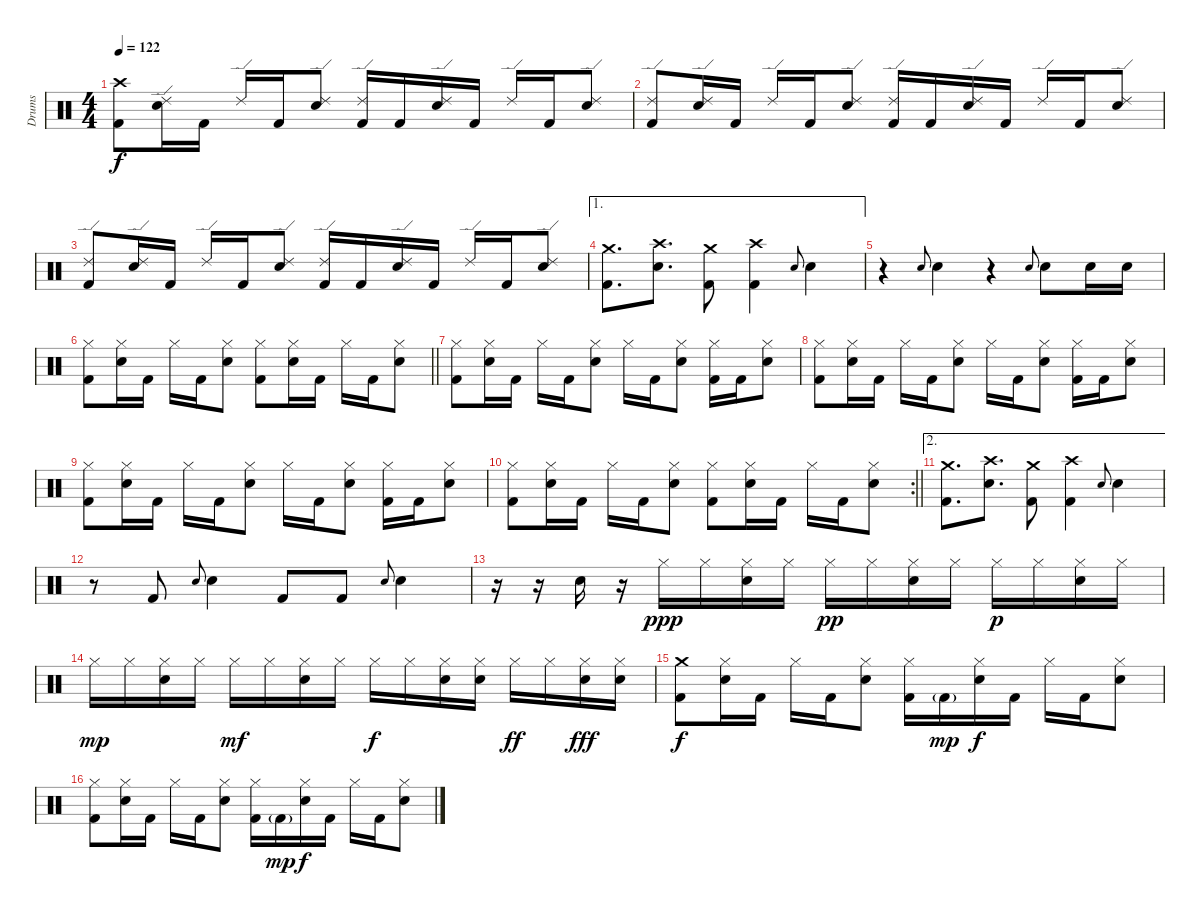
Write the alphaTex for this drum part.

\track ("Drums" "Drums") {instrument percussion}
\staff {score}
\articulation defaults
\ts (4 4)
\tempo 122
\clef neutral
\ks c
("Crash high (hit)" "Kick (hit) 2").8{dy f} ("Ride (edge) 2" "Snare (hit) 2").16 "Kick (hit) 2".16 "Ride (edge) 2".16 "Kick (hit) 2".16 ("Ride (edge) 2" "Snare (hit) 2").8 ("Ride (edge) 2" "Kick (hit) 2").16 "Kick (hit) 2".16 ("Ride (edge) 2" "Snare (hit) 2").16 "Kick (hit) 2".16 "Ride (edge) 2".16 "Kick (hit) 2".16 ("Ride (edge) 2" "Snare (hit) 2").8 |
("Ride (edge) 2" "Kick (hit) 2").8 ("Ride (edge) 2" "Snare (hit) 2").16 "Kick (hit) 2".16 "Ride (edge) 2".16 "Kick (hit) 2".16 ("Ride (edge) 2" "Snare (hit) 2").8 ("Ride (edge) 2" "Kick (hit) 2").16 "Kick (hit) 2".16 ("Ride (edge) 2" "Snare (hit) 2").16 "Kick (hit) 2".16 "Ride (edge) 2".16 "Kick (hit) 2".16 ("Ride (edge) 2" "Snare (hit) 2").8 |
("Ride (edge) 2" "Kick (hit) 2").8 ("Ride (edge) 2" "Snare (hit) 2").16 "Kick (hit) 2".16 "Ride (edge) 2".16 "Kick (hit) 2".16 ("Ride (edge) 2" "Snare (hit) 2").8 ("Ride (edge) 2" "Kick (hit) 2").16 "Kick (hit) 2".16 ("Ride (edge) 2" "Snare (hit) 2").16 "Kick (hit) 2".16 "Ride (edge) 2".16 "Kick (hit) 2".16 ("Ride (edge) 2" "Snare (hit) 2").8 |
\ae 1
("Crash medium (hit)" "Kick (hit) 2").8{d} ("Crash high (hit)" "Snare (hit) 2").8{d} ("Crash medium (hit)" "Kick (hit) 2").8 ("Crash high (hit)" "Kick (hit) 2").4 "Snare (hit) 2".8{gr onbeat} "Snare (hit) 2".4 |
r.4 "Snare (hit) 2".8{gr onbeat} "Snare (hit) 2".4 r.4 "Snare (hit) 2".8{gr onbeat} "Snare (hit) 2".8 "Snare (hit) 2".16 "Snare (hit) 2".16 |
\barLineRight lightlight
("Hi-Hat (closed)" "Kick (hit) 2").8 ("Hi-Hat (closed)" "Snare (hit) 2").16 "Kick (hit) 2".16 "Hi-Hat (closed)".16 "Kick (hit) 2".16 ("Hi-Hat (closed)" "Snare (hit) 2").8 ("Hi-Hat (closed)" "Kick (hit) 2").8 ("Hi-Hat (closed)" "Snare (hit) 2").16 "Kick (hit) 2".16 "Hi-Hat (closed)".16 "Kick (hit) 2".16 ("Hi-Hat (closed)" "Snare (hit) 2").8 |
\section ("" "")
("Hi-Hat (closed)" "Kick (hit) 2").8 ("Hi-Hat (closed)" "Snare (hit) 2").16 "Kick (hit) 2".16 "Hi-Hat (closed)".16 "Kick (hit) 2".16 ("Hi-Hat (closed)" "Snare (hit) 2").8 "Hi-Hat (closed)".16 "Kick (hit) 2".16 ("Hi-Hat (closed)" "Snare (hit) 2").8 ("Hi-Hat (closed)" "Kick (hit) 2").16 "Kick (hit) 2".16 ("Hi-Hat (closed)" "Snare (hit) 2").8 |
("Hi-Hat (closed)" "Kick (hit) 2").8 ("Hi-Hat (closed)" "Snare (hit) 2").16 "Kick (hit) 2".16 "Hi-Hat (closed)".16 "Kick (hit) 2".16 ("Hi-Hat (closed)" "Snare (hit) 2").8 "Hi-Hat (closed)".16 "Kick (hit) 2".16 ("Hi-Hat (closed)" "Snare (hit) 2").8 ("Hi-Hat (closed)" "Kick (hit) 2").16 "Kick (hit) 2".16 ("Hi-Hat (closed)" "Snare (hit) 2").8 |
("Hi-Hat (closed)" "Kick (hit) 2").8 ("Hi-Hat (closed)" "Snare (hit) 2").16 "Kick (hit) 2".16 "Hi-Hat (closed)".16 "Kick (hit) 2".16 ("Hi-Hat (closed)" "Snare (hit) 2").8 "Hi-Hat (closed)".16 "Kick (hit) 2".16 ("Hi-Hat (closed)" "Snare (hit) 2").8 ("Hi-Hat (closed)" "Kick (hit) 2").16 "Kick (hit) 2".16 ("Hi-Hat (closed)" "Snare (hit) 2").8 |
\rc 2
\barLineRight lightlight
("Hi-Hat (closed)" "Kick (hit) 2").8 ("Hi-Hat (closed)" "Snare (hit) 2").16 "Kick (hit) 2".16 "Hi-Hat (closed)".16 "Kick (hit) 2".16 ("Hi-Hat (closed)" "Snare (hit) 2").8 ("Hi-Hat (closed)" "Kick (hit) 2").8 ("Hi-Hat (closed)" "Snare (hit) 2").16 "Kick (hit) 2".16 "Hi-Hat (closed)".16 "Kick (hit) 2".16 ("Hi-Hat (closed)" "Snare (hit) 2").8 |
\ae 2
("Crash medium (hit)" "Kick (hit) 2").8{d} ("Crash high (hit)" "Snare (hit) 2").8{d} ("Crash medium (hit)" "Kick (hit) 2").8 ("Crash high (hit)" "Kick (hit) 2").4 "Snare (hit) 2".8{gr onbeat} "Snare (hit) 2".4 |
r.8 "Kick (hit) 2".8 "Snare (hit) 2".8{gr onbeat} "Snare (hit) 2".4 "Kick (hit) 2".8 "Kick (hit) 2".8 "Snare (hit) 2".8{gr onbeat} "Snare (hit) 2".4 |
r.16 r.16 "Snare (hit) 2".16 r.16 "Hi-Hat (closed)".16{dy ppp} "Hi-Hat (closed)".16 ("Hi-Hat (closed)" "Snare (hit) 2").16 "Hi-Hat (closed)".16 "Hi-Hat (closed)".16{dy pp} "Hi-Hat (closed)".16 ("Hi-Hat (closed)" "Snare (hit) 2").16 "Hi-Hat (closed)".16 "Hi-Hat (closed)".16{dy p} "Hi-Hat (closed)".16 ("Hi-Hat (closed)" "Snare (hit) 2").16 "Hi-Hat (closed)".16 |
"Hi-Hat (closed)".16{dy mp} "Hi-Hat (closed)".16 ("Hi-Hat (closed)" "Snare (hit) 2").16 "Hi-Hat (closed)".16 "Hi-Hat (closed)".16{dy mf} "Hi-Hat (closed)".16 ("Hi-Hat (closed)" "Snare (hit) 2").16 "Hi-Hat (closed)".16 "Hi-Hat (closed)".16{dy f} "Hi-Hat (closed)".16 ("Hi-Hat (closed)" "Snare (hit) 2").16 ("Hi-Hat (closed)" "Snare (hit) 2").16 "Hi-Hat (closed)".16{dy ff} "Hi-Hat (closed)".16 ("Hi-Hat (closed)" "Snare (hit) 2").16{dy fff} ("Hi-Hat (closed)" "Snare (hit) 2").16 |
("Crash medium (hit)" "Kick (hit) 2").8{dy f} ("Hi-Hat (closed)" "Snare (hit) 2").16 "Kick (hit) 2".16 "Hi-Hat (closed)".16 "Kick (hit) 2".16 ("Hi-Hat (closed)" "Snare (hit) 2").8 ("Hi-Hat (closed)" "Kick (hit) 2").16 "Kick (hit) 2"{g}.16{dy mp} ("Hi-Hat (closed)" "Snare (hit) 2").16{dy f} "Kick (hit) 2".16 "Hi-Hat (closed)".16 "Kick (hit) 2".16 ("Hi-Hat (closed)" "Snare (hit) 2").8 |
("Hi-Hat (closed)" "Kick (hit) 2").8 ("Hi-Hat (closed)" "Snare (hit) 2").16 "Kick (hit) 2".16 "Hi-Hat (closed)".16 "Kick (hit) 2".16 ("Hi-Hat (closed)" "Snare (hit) 2").8 ("Hi-Hat (closed)" "Kick (hit) 2").16 "Kick (hit) 2"{g}.16{dy mp} ("Hi-Hat (closed)" "Snare (hit) 2").16{dy f} "Kick (hit) 2".16 "Hi-Hat (closed)".16 "Kick (hit) 2".16 ("Hi-Hat (closed)" "Snare (hit) 2").8
